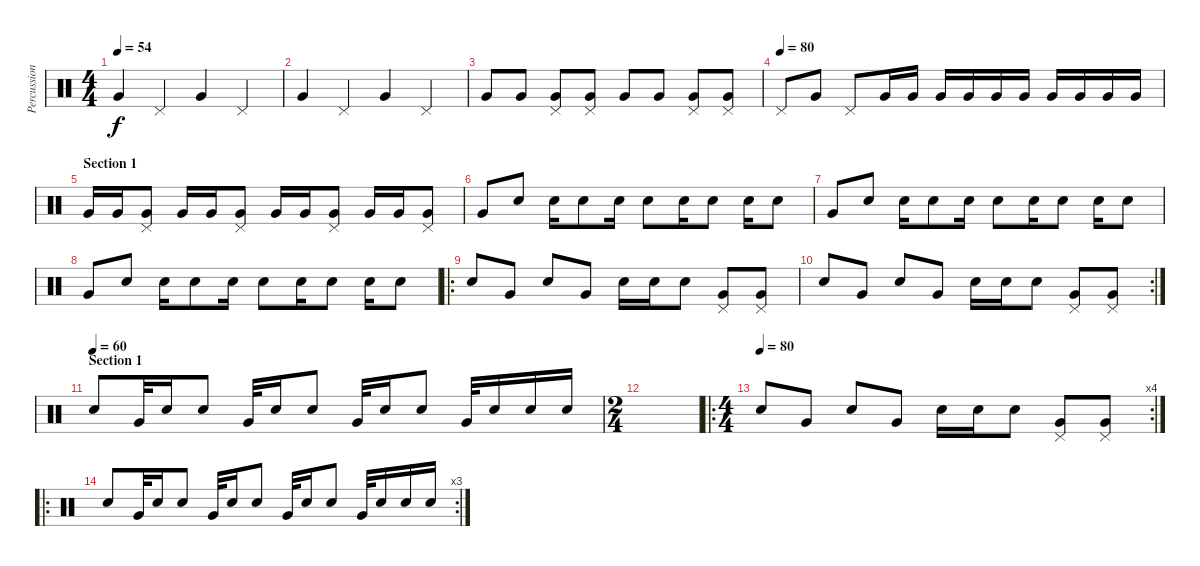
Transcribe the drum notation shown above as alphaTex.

\track ("Percussions" "Percussion") {instrument percussion}
\staff {score}
\articulation defaults
\ts (4 4)
\tempo 54
\clef neutral
\ks c "Very Low Tom (hit)".4{dy f} "Pedal Hi-Hat (hit)".4 "Very Low Tom (hit)".4 "Pedal Hi-Hat (hit)".4
|
"Very Low Tom (hit)".4 "Pedal Hi-Hat (hit)".4 "Very Low Tom (hit)".4 "Pedal Hi-Hat (hit)".4 |
"Very Low Tom (hit)".8 "Very Low Tom (hit)".8 ("Very Low Tom (hit)" "Pedal Hi-Hat (hit)").8 ("Very Low Tom (hit)" "Pedal Hi-Hat (hit)").8 "Very Low Tom (hit)".8 "Very Low Tom (hit)".8 ("Very Low Tom (hit)" "Pedal Hi-Hat (hit)").8 ("Very Low Tom (hit)" "Pedal Hi-Hat (hit)").8 |
\tempo (80)
"Pedal Hi-Hat (hit)".8 "Very Low Tom (hit)".8 "Pedal Hi-Hat (hit)".8 "Very Low Tom (hit)".16 "Very Low Tom (hit)".16 "Very Low Tom (hit)".16 "Very Low Tom (hit)".16 "Very Low Tom (hit)".16 "Very Low Tom (hit)".16 "Very Low Tom (hit)".16 "Very Low Tom (hit)".16 "Very Low Tom (hit)".16 "Very Low Tom (hit)".16 |
\section ("" "Section 1")
"Very Low Tom (hit)".16 "Very Low Tom (hit)".16 ("Very Low Tom (hit)" "Pedal Hi-Hat (hit)").8 "Very Low Tom (hit)".16 "Very Low Tom (hit)".16 ("Very Low Tom (hit)" "Pedal Hi-Hat (hit)").8 "Very Low Tom (hit)".16 "Very Low Tom (hit)".16 ("Very Low Tom (hit)" "Pedal Hi-Hat (hit)").8 "Very Low Tom (hit)".16 "Very Low Tom (hit)".16 ("Very Low Tom (hit)" "Pedal Hi-Hat (hit)").8 |
"Very Low Tom (hit)".8 "Snare (hit) 2".8 "Snare (hit) 2".16 "Snare (hit) 2".8 "Snare (hit) 2".16 "Snare (hit) 2".8 "Snare (hit) 2".16 "Snare (hit) 2".8 "Snare (hit) 2".16 "Snare (hit) 2".8 |
"Very Low Tom (hit)".8 "Snare (hit) 2".8 "Snare (hit) 2".16 "Snare (hit) 2".8 "Snare (hit) 2".16 "Snare (hit) 2".8 "Snare (hit) 2".16 "Snare (hit) 2".8 "Snare (hit) 2".16 "Snare (hit) 2".8 |
"Very Low Tom (hit)".8 "Snare (hit) 2".8 "Snare (hit) 2".16 "Snare (hit) 2".8 "Snare (hit) 2".16 "Snare (hit) 2".8 "Snare (hit) 2".16 "Snare (hit) 2".8 "Snare (hit) 2".16 "Snare (hit) 2".8 |
\ro "Snare (hit) 2".8 "Very Low Tom (hit)".8 "Snare (hit) 2".8 "Very Low Tom (hit)".8 "Snare (hit) 2".16 "Snare (hit) 2".16 "Snare (hit) 2".8
("Very Low Tom (hit)" "Pedal Hi-Hat (hit)").8 ("Very Low Tom (hit)" "Pedal Hi-Hat (hit)").8 |
\rc 2 "Snare (hit) 2".8 "Very Low Tom (hit)".8 "Snare (hit) 2".8 "Very Low Tom (hit)".8 "Snare (hit) 2".16 "Snare (hit) 2".16 "Snare (hit) 2".8
("Very Low Tom (hit)" "Pedal Hi-Hat (hit)").8 ("Very Low Tom (hit)" "Pedal Hi-Hat (hit)").8 |
\section ("" "Section 1")
\tempo (60)
"Snare (hit) 2".8 "Very Low Tom (hit)".32 "Snare (hit) 2".16 "Snare (hit) 2".8 "Very Low Tom (hit)".32 "Snare (hit) 2".16 "Snare (hit) 2".8 "Very Low Tom (hit)".32 "Snare (hit) 2".16 "Snare (hit) 2".8 "Very Low Tom (hit)".32 "Snare (hit) 2".16 "Snare (hit) 2".16 "Snare (hit) 2".16 |
\ts (2 4)
|
\ro
\rc 4
\ts (4 4)
\tempo (80)
"Snare (hit) 2".8 "Very Low Tom (hit)".8 "Snare (hit) 2".8 "Very Low Tom (hit)".8 "Snare (hit) 2".16 "Snare (hit) 2".16 "Snare (hit) 2".8 ("Very Low Tom (hit)" "Pedal Hi-Hat (hit)").8 ("Very Low Tom (hit)" "Pedal Hi-Hat (hit)").8 |
\ro
\rc 3 "Snare (hit) 2".8 "Very Low Tom (hit)".32 "Snare (hit) 2".16 "Snare (hit) 2".8 "Very Low Tom (hit)".32 "Snare (hit) 2".16 "Snare (hit) 2".8 "Very Low Tom (hit)".32 "Snare (hit) 2".16 "Snare (hit) 2".8 "Very Low Tom (hit)".32 "Snare (hit) 2".16 "Snare (hit) 2".16 "Snare (hit) 2".16
